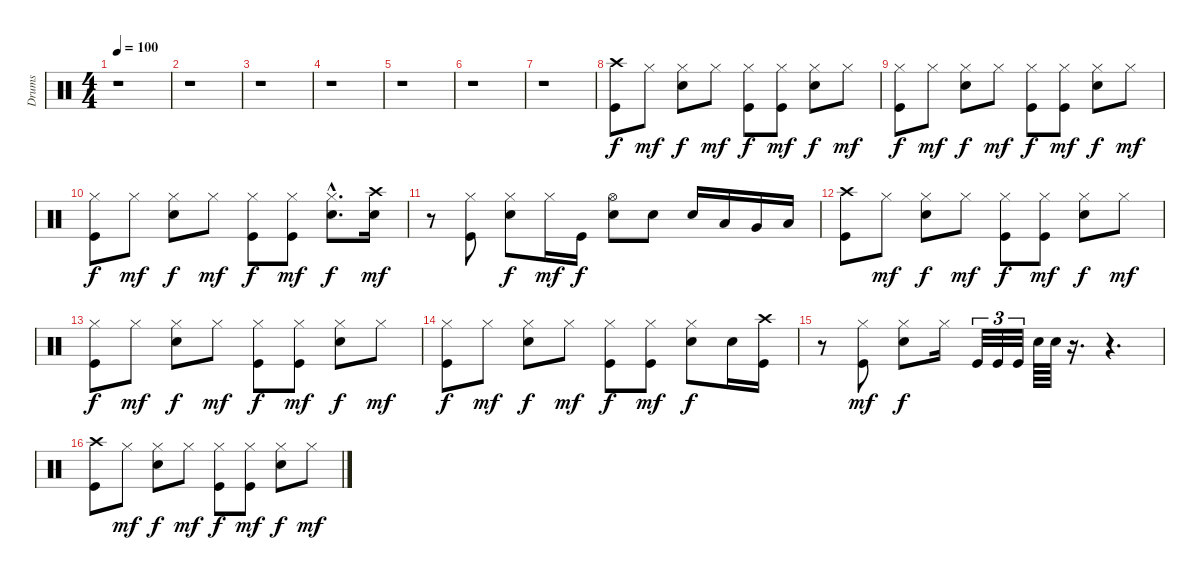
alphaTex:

\track ("Drums" "Drums") {instrument percussion}
\staff {score}
\articulation defaults
\ts (4 4)
\tempo 100
\clef neutral
\ks c
r.1{dy f} |
r.1 |
r.1 |
r.1 |
r.1 |
r.1 |
r.1 |
("Crash high (hit)" "Kick (hit)").8 "Hi-Hat (closed)".8{dy mf} ("Hi-Hat (closed)" "Snare (hit) 2").8{dy f} "Hi-Hat (closed)".8{dy mf} ("Hi-Hat (closed)" "Kick (hit)").8{dy f} ("Hi-Hat (closed)" "Kick (hit)").8{dy mf} ("Hi-Hat (closed)" "Snare (hit) 2").8{dy f} "Hi-Hat (closed)".8{dy mf} |
("Hi-Hat (closed)" "Kick (hit)").8{dy f} "Hi-Hat (closed)".8{dy mf} ("Hi-Hat (closed)" "Snare (hit) 2").8{dy f} "Hi-Hat (closed)".8{dy mf} ("Hi-Hat (closed)" "Kick (hit)").8{dy f} ("Hi-Hat (closed)" "Kick (hit)").8{dy mf} ("Hi-Hat (closed)" "Snare (hit) 2").8{dy f} "Hi-Hat (closed)".8{dy mf} |
("Hi-Hat (closed)" "Kick (hit)").8{dy f} "Hi-Hat (closed)".8{dy mf} ("Hi-Hat (closed)" "Snare (hit) 2").8{dy f} "Hi-Hat (closed)".8{dy mf} ("Hi-Hat (closed)" "Kick (hit)").8{dy f} ("Hi-Hat (closed)" "Kick (hit)").8{dy mf} ("Hi-Hat (closed)"{hac} "Snare (hit) 2"{hac}).8{d dy f} ("Crash high (hit)" "Snare (hit) 2").16{dy mf} |
r.8 ("Hi-Hat (closed)" "Kick (hit)").8 ("Hi-Hat (closed)" "Snare (hit) 2").8{dy f} "Hi-Hat (closed)".16{dy mf} "Kick (hit)".16{dy f} ("Hi-Hat (open)" "Snare (hit) 2").8 "Snare (hit) 2".8 "Snare (hit) 2".16 "Low Tom (hit)".16 "Very Low Tom (hit)".16 "Low Floor Tom (hit)".16 |
("Crash high (hit)" "Kick (hit)").8 "Hi-Hat (closed)".8{dy mf} ("Hi-Hat (closed)" "Snare (hit) 2").8{dy f} "Hi-Hat (closed)".8{dy mf} ("Hi-Hat (closed)" "Kick (hit)").8{dy f} ("Hi-Hat (closed)" "Kick (hit)").8{dy mf} ("Hi-Hat (closed)" "Snare (hit) 2").8{dy f} "Hi-Hat (closed)".8{dy mf} |
("Hi-Hat (closed)" "Kick (hit)").8{dy f} "Hi-Hat (closed)".8{dy mf} ("Hi-Hat (closed)" "Snare (hit) 2").8{dy f} "Hi-Hat (closed)".8{dy mf} ("Hi-Hat (closed)" "Kick (hit)").8{dy f} ("Hi-Hat (closed)" "Kick (hit)").8{dy mf} ("Hi-Hat (closed)" "Snare (hit) 2").8{dy f} "Hi-Hat (closed)".8{dy mf} |
("Hi-Hat (closed)" "Kick (hit)").8{dy f} "Hi-Hat (closed)".8{dy mf} ("Hi-Hat (closed)" "Snare (hit) 2").8{dy f} "Hi-Hat (closed)".8{dy mf} ("Hi-Hat (closed)" "Kick (hit)").8{dy f} ("Hi-Hat (closed)" "Kick (hit)").8{dy mf} ("Hi-Hat (closed)" "Snare (hit) 2").8{dy f} "Snare (hit) 2".16 ("Crash high (hit)" "Kick (hit)").16 |
r.8 ("Hi-Hat (closed)" "Kick (hit)").8{dy mf} ("Hi-Hat (closed)" "Snare (hit) 2").8{dy f} "Hi-Hat (closed)".16 "Kick (hit)".32{tu (3 2)} "Kick (hit)".32{tu (3 2)} "Kick (hit)".32{tu (3 2)} "Snare (hit) 2".64 "Snare (hit) 2".64 r.16{d} r.4{d} |
("Crash high (hit)" "Kick (hit)").8 "Hi-Hat (closed)".8{dy mf} ("Hi-Hat (closed)" "Snare (hit) 2").8{dy f} "Hi-Hat (closed)".8{dy mf} ("Hi-Hat (closed)" "Kick (hit)").8{dy f} ("Hi-Hat (closed)" "Kick (hit)").8{dy mf} ("Hi-Hat (closed)" "Snare (hit) 2").8{dy f} "Hi-Hat (closed)".8{dy mf}
